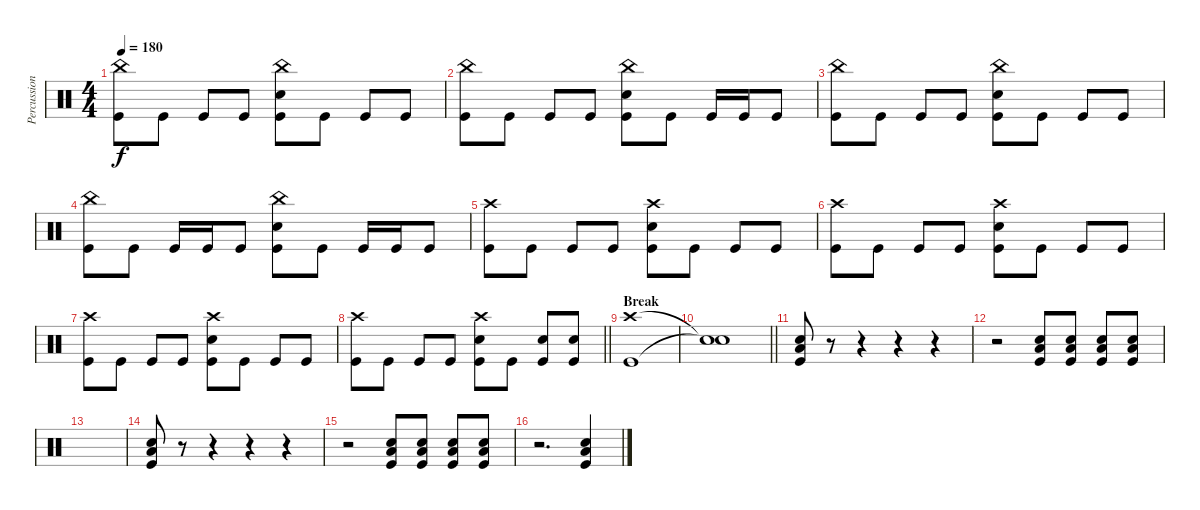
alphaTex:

\track ("Percussion" "Percussion") {instrument percussion}
\staff {score}
\articulation defaults
\ts (4 4)
\tempo 180
\clef neutral
\ks c
("China (hit)" "Kick (hit)").8{dy f} "Kick (hit)".8 "Kick (hit)".8 "Kick (hit)".8 ("China (hit)" "Kick (hit)" "Snare (hit) 2").8 "Kick (hit)".8 "Kick (hit)".8 "Kick (hit)".8 |
("China (hit)" "Kick (hit)").8 "Kick (hit)".8 "Kick (hit)".8 "Kick (hit)".8 ("China (hit)" "Kick (hit)" "Snare (hit) 2").8 "Kick (hit)".8 "Kick (hit)".16 "Kick (hit)".16 "Kick (hit)".8 |
("China (hit)" "Kick (hit)").8 "Kick (hit)".8 "Kick (hit)".8 "Kick (hit)".8 ("China (hit)" "Kick (hit)" "Snare (hit) 2").8 "Kick (hit)".8 "Kick (hit)".8 "Kick (hit)".8 |
("China (hit)" "Kick (hit)").8 "Kick (hit)".8 "Kick (hit)".16 "Kick (hit)".16 "Kick (hit)".8 ("China (hit)" "Kick (hit)" "Snare (hit) 2").8 "Kick (hit)".8 "Kick (hit)".16 "Kick (hit)".16 "Kick (hit)".8 |
("Crash high (hit)" "Kick (hit)").8 "Kick (hit)".8 "Kick (hit)".8 "Kick (hit)".8 ("Snare (hit) 2" "Crash high (hit)" "Kick (hit)").8 "Kick (hit)".8 "Kick (hit)".8 "Kick (hit)".8 |
("Crash high (hit)" "Kick (hit)").8 "Kick (hit)".8 "Kick (hit)".8 "Kick (hit)".8 ("Snare (hit) 2" "Crash high (hit)" "Kick (hit)").8 "Kick (hit)".8 "Kick (hit)".8 "Kick (hit)".8 |
("Crash high (hit)" "Kick (hit)").8 "Kick (hit)".8 "Kick (hit)".8 "Kick (hit)".8 ("Snare (hit) 2" "Crash high (hit)" "Kick (hit)").8 "Kick (hit)".8 "Kick (hit)".8 "Kick (hit)".8 |
\barLineRight lightlight
("Crash high (hit)" "Kick (hit)").8 "Kick (hit)".8 "Kick (hit)".8 "Kick (hit)".8 ("Snare (hit) 2" "Crash high (hit)" "Kick (hit)").8 "Kick (hit)".8 ("Snare (hit) 2" "Kick (hit)").8 ("Snare (hit) 2" "Kick (hit)").8 |
\section ("" "Break")
("Crash high (hit)" "Kick (hit)").1 |
\barLineRight lightlight
("Snare (hit)"{t} "Snare (hit)"{t}).1 |
\section ("" "")
("Snare (hit) 2" "Kick (hit)" "Low Floor Tom (hit)").8 r.8 r.4 r.4 r.4 |
r.2 ("Snare (hit) 2" "Kick (hit)" "Low Floor Tom (hit)").8 ("Snare (hit) 2" "Kick (hit)" "Low Floor Tom (hit)").8 ("Snare (hit) 2" "Kick (hit)" "Low Floor Tom (hit)").8 ("Snare (hit) 2" "Kick (hit)" "Low Floor Tom (hit)").8 |
|
("Snare (hit) 2" "Kick (hit)" "Low Floor Tom (hit)").8 r.8 r.4 r.4 r.4 |
r.2 ("Snare (hit) 2" "Kick (hit)" "Low Floor Tom (hit)").8 ("Snare (hit) 2" "Kick (hit)" "Low Floor Tom (hit)").8 ("Snare (hit) 2" "Kick (hit)" "Low Floor Tom (hit)").8 ("Snare (hit) 2" "Kick (hit)" "Low Floor Tom (hit)").8 |
r.2{d} ("Snare (hit) 2" "Kick (hit)" "Low Floor Tom (hit)").4
